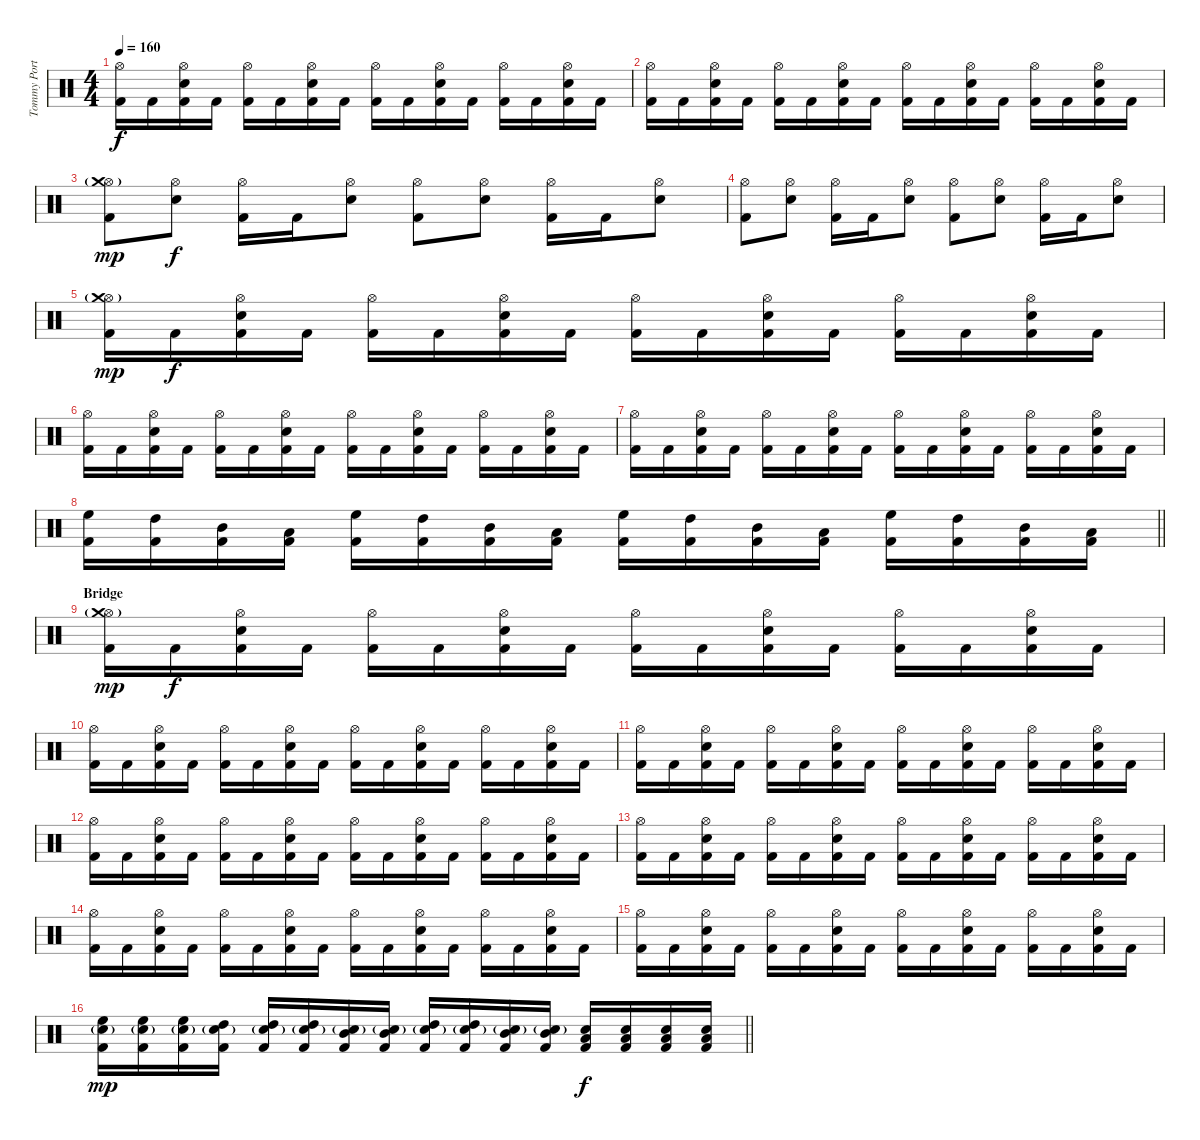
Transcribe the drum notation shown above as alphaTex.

\track ("Tommy Portino" "Tommy Port") {instrument percussion}
\staff {score}
\articulation defaults
\ts (4 4)
\tempo 160
\clef neutral
\ks c
("Hi-Hat (open)" "Kick (hit) 2").16{dy f} "Kick (hit) 2".16 ("Hi-Hat (open)" "Snare (hit) 2" "Kick (hit) 2").16 "Kick (hit) 2".16 ("Hi-Hat (open)" "Kick (hit) 2").16 "Kick (hit) 2".16 ("Hi-Hat (open)" "Snare (hit) 2" "Kick (hit) 2").16 "Kick (hit) 2".16 ("Hi-Hat (open)" "Kick (hit) 2").16 "Kick (hit) 2".16 ("Hi-Hat (open)" "Snare (hit) 2" "Kick (hit) 2").16 "Kick (hit) 2".16 ("Hi-Hat (open)" "Kick (hit) 2").16 "Kick (hit) 2".16 ("Hi-Hat (open)" "Snare (hit) 2" "Kick (hit) 2").16 "Kick (hit) 2".16 |
("Hi-Hat (open)" "Kick (hit) 2").16 "Kick (hit) 2".16 ("Hi-Hat (open)" "Snare (hit) 2" "Kick (hit) 2").16 "Kick (hit) 2".16 ("Hi-Hat (open)" "Kick (hit) 2").16 "Kick (hit) 2".16 ("Hi-Hat (open)" "Snare (hit) 2" "Kick (hit) 2").16 "Kick (hit) 2".16 ("Hi-Hat (open)" "Kick (hit) 2").16 "Kick (hit) 2".16 ("Hi-Hat (open)" "Snare (hit) 2" "Kick (hit) 2").16 "Kick (hit) 2".16 ("Hi-Hat (open)" "Kick (hit) 2").16 "Kick (hit) 2".16 ("Hi-Hat (open)" "Snare (hit) 2" "Kick (hit) 2").16 "Kick (hit) 2".16 |
("Hi-Hat (open)"{g} "Crash medium (hit)" "Kick (hit) 2").8{dy mp} ("Hi-Hat (open)" "Snare (hit) 2").8{dy f} ("Hi-Hat (open)" "Kick (hit) 2").16 "Kick (hit) 2".16 ("Hi-Hat (open)" "Snare (hit) 2").8 ("Hi-Hat (open)" "Kick (hit) 2").8 ("Hi-Hat (open)" "Snare (hit) 2").8 ("Hi-Hat (open)" "Kick (hit) 2").16 "Kick (hit) 2".16 ("Hi-Hat (open)" "Snare (hit) 2").8 |
("Hi-Hat (open)" "Kick (hit) 2").8 ("Hi-Hat (open)" "Snare (hit) 2").8 ("Hi-Hat (open)" "Kick (hit) 2").16 "Kick (hit) 2".16 ("Hi-Hat (open)" "Snare (hit) 2").8 ("Hi-Hat (open)" "Kick (hit) 2").8 ("Hi-Hat (open)" "Snare (hit) 2").8 ("Hi-Hat (open)" "Kick (hit) 2").16 "Kick (hit) 2".16 ("Hi-Hat (open)" "Snare (hit) 2").8 |
("Hi-Hat (open)"{g} "Crash medium (hit)" "Kick (hit) 2").16{dy mp} "Kick (hit) 2".16{dy f} ("Hi-Hat (open)" "Snare (hit) 2" "Kick (hit) 2").16 "Kick (hit) 2".16 ("Hi-Hat (open)" "Kick (hit) 2").16 "Kick (hit) 2".16 ("Hi-Hat (open)" "Snare (hit) 2" "Kick (hit) 2").16 "Kick (hit) 2".16 ("Hi-Hat (open)" "Kick (hit) 2").16 "Kick (hit) 2".16 ("Hi-Hat (open)" "Snare (hit) 2" "Kick (hit) 2").16 "Kick (hit) 2".16 ("Hi-Hat (open)" "Kick (hit) 2").16 "Kick (hit) 2".16 ("Hi-Hat (open)" "Snare (hit) 2" "Kick (hit) 2").16 "Kick (hit) 2".16 |
("Hi-Hat (open)" "Kick (hit) 2").16 "Kick (hit) 2".16 ("Hi-Hat (open)" "Snare (hit) 2" "Kick (hit) 2").16 "Kick (hit) 2".16 ("Hi-Hat (open)" "Kick (hit) 2").16 "Kick (hit) 2".16 ("Hi-Hat (open)" "Snare (hit) 2" "Kick (hit) 2").16 "Kick (hit) 2".16 ("Hi-Hat (open)" "Kick (hit) 2").16 "Kick (hit) 2".16 ("Hi-Hat (open)" "Snare (hit) 2" "Kick (hit) 2").16 "Kick (hit) 2".16 ("Hi-Hat (open)" "Kick (hit) 2").16 "Kick (hit) 2".16 ("Hi-Hat (open)" "Snare (hit) 2" "Kick (hit) 2").16 "Kick (hit) 2".16 |
("Hi-Hat (open)" "Kick (hit) 2").16 "Kick (hit) 2".16 ("Hi-Hat (open)" "Snare (hit) 2" "Kick (hit) 2").16 "Kick (hit) 2".16 ("Hi-Hat (open)" "Kick (hit) 2").16 "Kick (hit) 2".16 ("Hi-Hat (open)" "Snare (hit) 2" "Kick (hit) 2").16 "Kick (hit) 2".16 ("Hi-Hat (open)" "Kick (hit) 2").16 "Kick (hit) 2".16 ("Hi-Hat (open)" "Snare (hit) 2" "Kick (hit) 2").16 "Kick (hit) 2".16 ("Hi-Hat (open)" "Kick (hit) 2").16 "Kick (hit) 2".16 ("Hi-Hat (open)" "Snare (hit) 2" "Kick (hit) 2").16 "Kick (hit) 2".16 |
\barLineRight lightlight
("High Floor Tom (hit)" "Kick (hit) 2").16 ("High Tom (hit)" "Kick (hit) 2").16 ("Mid Tom (hit)" "Kick (hit) 2").16 ("Low Tom (hit)" "Kick (hit) 2").16 ("High Floor Tom (hit)" "Kick (hit) 2").16 ("High Tom (hit)" "Kick (hit) 2").16 ("Mid Tom (hit)" "Kick (hit) 2").16 ("Low Tom (hit)" "Kick (hit) 2").16 ("High Floor Tom (hit)" "Kick (hit) 2").16 ("High Tom (hit)" "Kick (hit) 2").16 ("Mid Tom (hit)" "Kick (hit) 2").16 ("Low Tom (hit)" "Kick (hit) 2").16 ("High Floor Tom (hit)" "Kick (hit) 2").16 ("High Tom (hit)" "Kick (hit) 2").16 ("Mid Tom (hit)" "Kick (hit) 2").16 ("Low Tom (hit)" "Kick (hit) 2").16 |
\section ("" "Bridge")
("Hi-Hat (open)"{g} "Crash medium (hit)" "Kick (hit) 2").16{dy mp} "Kick (hit) 2".16{dy f} ("Hi-Hat (open)" "Snare (hit) 2" "Kick (hit) 2").16 "Kick (hit) 2".16 ("Hi-Hat (open)" "Kick (hit) 2").16 "Kick (hit) 2".16 ("Hi-Hat (open)" "Snare (hit) 2" "Kick (hit) 2").16 "Kick (hit) 2".16 ("Hi-Hat (open)" "Kick (hit) 2").16 "Kick (hit) 2".16 ("Hi-Hat (open)" "Snare (hit) 2" "Kick (hit) 2").16 "Kick (hit) 2".16 ("Hi-Hat (open)" "Kick (hit) 2").16 "Kick (hit) 2".16 ("Hi-Hat (open)" "Snare (hit) 2" "Kick (hit) 2").16 "Kick (hit) 2".16 |
("Hi-Hat (open)" "Kick (hit) 2").16 "Kick (hit) 2".16 ("Hi-Hat (open)" "Snare (hit) 2" "Kick (hit) 2").16 "Kick (hit) 2".16 ("Hi-Hat (open)" "Kick (hit) 2").16 "Kick (hit) 2".16 ("Hi-Hat (open)" "Snare (hit) 2" "Kick (hit) 2").16 "Kick (hit) 2".16 ("Hi-Hat (open)" "Kick (hit) 2").16 "Kick (hit) 2".16 ("Hi-Hat (open)" "Snare (hit) 2" "Kick (hit) 2").16 "Kick (hit) 2".16 ("Hi-Hat (open)" "Kick (hit) 2").16 "Kick (hit) 2".16 ("Hi-Hat (open)" "Snare (hit) 2" "Kick (hit) 2").16 "Kick (hit) 2".16 |
("Hi-Hat (open)" "Kick (hit) 2").16 "Kick (hit) 2".16 ("Hi-Hat (open)" "Snare (hit) 2" "Kick (hit) 2").16 "Kick (hit) 2".16 ("Hi-Hat (open)" "Kick (hit) 2").16 "Kick (hit) 2".16 ("Hi-Hat (open)" "Snare (hit) 2" "Kick (hit) 2").16 "Kick (hit) 2".16 ("Hi-Hat (open)" "Kick (hit) 2").16 "Kick (hit) 2".16 ("Hi-Hat (open)" "Snare (hit) 2" "Kick (hit) 2").16 "Kick (hit) 2".16 ("Hi-Hat (open)" "Kick (hit) 2").16 "Kick (hit) 2".16 ("Hi-Hat (open)" "Snare (hit) 2" "Kick (hit) 2").16 "Kick (hit) 2".16 |
("Hi-Hat (open)" "Kick (hit) 2").16 "Kick (hit) 2".16 ("Hi-Hat (open)" "Snare (hit) 2" "Kick (hit) 2").16 "Kick (hit) 2".16 ("Hi-Hat (open)" "Kick (hit) 2").16 "Kick (hit) 2".16 ("Hi-Hat (open)" "Snare (hit) 2" "Kick (hit) 2").16 "Kick (hit) 2".16 ("Hi-Hat (open)" "Kick (hit) 2").16 "Kick (hit) 2".16 ("Hi-Hat (open)" "Snare (hit) 2" "Kick (hit) 2").16 "Kick (hit) 2".16 ("Hi-Hat (open)" "Kick (hit) 2").16 "Kick (hit) 2".16 ("Hi-Hat (open)" "Snare (hit) 2" "Kick (hit) 2").16 "Kick (hit) 2".16 |
("Hi-Hat (open)" "Kick (hit) 2").16 "Kick (hit) 2".16 ("Hi-Hat (open)" "Snare (hit) 2" "Kick (hit) 2").16 "Kick (hit) 2".16 ("Hi-Hat (open)" "Kick (hit) 2").16 "Kick (hit) 2".16 ("Hi-Hat (open)" "Snare (hit) 2" "Kick (hit) 2").16 "Kick (hit) 2".16 ("Hi-Hat (open)" "Kick (hit) 2").16 "Kick (hit) 2".16 ("Hi-Hat (open)" "Snare (hit) 2" "Kick (hit) 2").16 "Kick (hit) 2".16 ("Hi-Hat (open)" "Kick (hit) 2").16 "Kick (hit) 2".16 ("Hi-Hat (open)" "Snare (hit) 2" "Kick (hit) 2").16 "Kick (hit) 2".16 |
("Hi-Hat (open)" "Kick (hit) 2").16 "Kick (hit) 2".16 ("Hi-Hat (open)" "Snare (hit) 2" "Kick (hit) 2").16 "Kick (hit) 2".16 ("Hi-Hat (open)" "Kick (hit) 2").16 "Kick (hit) 2".16 ("Hi-Hat (open)" "Snare (hit) 2" "Kick (hit) 2").16 "Kick (hit) 2".16 ("Hi-Hat (open)" "Kick (hit) 2").16 "Kick (hit) 2".16 ("Hi-Hat (open)" "Snare (hit) 2" "Kick (hit) 2").16 "Kick (hit) 2".16 ("Hi-Hat (open)" "Kick (hit) 2").16 "Kick (hit) 2".16 ("Hi-Hat (open)" "Snare (hit) 2" "Kick (hit) 2").16 "Kick (hit) 2".16 |
("Hi-Hat (open)" "Kick (hit) 2").16 "Kick (hit) 2".16 ("Hi-Hat (open)" "Snare (hit) 2" "Kick (hit) 2").16 "Kick (hit) 2".16 ("Hi-Hat (open)" "Kick (hit) 2").16 "Kick (hit) 2".16 ("Hi-Hat (open)" "Snare (hit) 2" "Kick (hit) 2").16 "Kick (hit) 2".16 ("Hi-Hat (open)" "Kick (hit) 2").16 "Kick (hit) 2".16 ("Hi-Hat (open)" "Snare (hit) 2" "Kick (hit) 2").16 "Kick (hit) 2".16 ("Hi-Hat (open)" "Kick (hit) 2").16 "Kick (hit) 2".16 ("Hi-Hat (open)" "Snare (hit) 2" "Kick (hit) 2").16 "Kick (hit) 2".16 |
\barLineRight lightlight
("High Floor Tom (hit)" "Snare (hit) 2"{g} "Kick (hit) 2").16{dy mp} ("High Floor Tom (hit)" "Snare (hit) 2"{g} "Kick (hit) 2").16 ("High Floor Tom (hit)" "Snare (hit) 2"{g} "Kick (hit) 2").16 ("High Tom (hit)" "Snare (hit) 2"{g} "Kick (hit) 2").16 ("High Tom (hit)" "Snare (hit) 2"{g} "Kick (hit) 2").16 ("High Tom (hit)" "Snare (hit) 2"{g} "Kick (hit) 2").16 ("Mid Tom (hit)" "Snare (hit) 2"{g} "Kick (hit) 2").16 ("Mid Tom (hit)" "Snare (hit) 2"{g} "Kick (hit) 2").16 ("High Tom (hit)" "Snare (hit) 2"{g} "Kick (hit) 2").16 ("High Tom (hit)" "Snare (hit) 2"{g} "Kick (hit) 2").16 ("Mid Tom (hit)" "Snare (hit) 2"{g} "Kick (hit) 2").16 ("Mid Tom (hit)" "Snare (hit) 2"{g} "Kick (hit) 2").16 ("Low Tom (hit)" "Snare (hit) 2" "Kick (hit) 2").16{dy f} ("Low Tom (hit)" "Snare (hit) 2" "Kick (hit) 2").16 ("Low Tom (hit)" "Snare (hit) 2" "Kick (hit) 2").16 ("Low Tom (hit)" "Snare (hit) 2" "Kick (hit) 2").16
